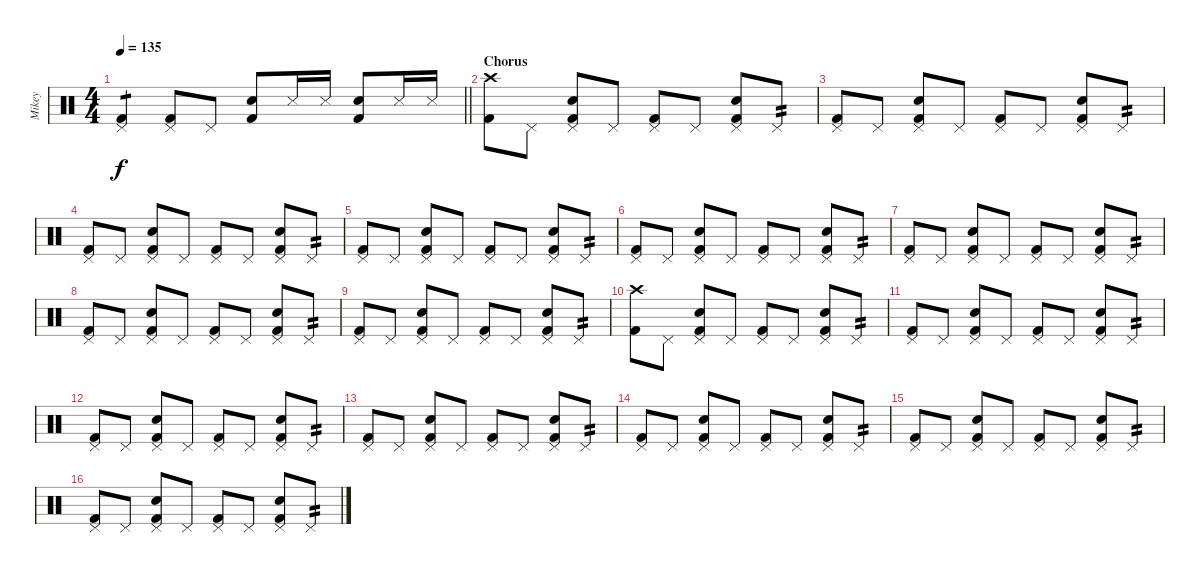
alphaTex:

\track ("Mikey" "Mikey") {instrument percussion}
\staff {score}
\articulation defaults
\ts (4 4)
\tempo 135
\clef neutral
\barLineRight lightlight
\ks c
("Pedal Hi-Hat (hit)" "Kick (hit) 2").4{tp 1 dy f} ("Pedal Hi-Hat (hit)" "Kick (hit) 2").8 "Pedal Hi-Hat (hit)".8 ("Snare (hit) 2" "Kick (hit) 2").8 "Snare (side stick) 3".16 "Snare (side stick) 3".16 ("Snare (hit) 2" "Kick (hit) 2").8 "Snare (side stick) 3".16 "Snare (side stick) 3".16 |
\section ("" "Chorus")
("Crash high (hit)" "Kick (hit) 2").8 "Pedal Hi-Hat (hit)".8 ("Pedal Hi-Hat (hit)" "Snare (hit) 2" "Kick (hit) 2").8 "Pedal Hi-Hat (hit)".8 ("Pedal Hi-Hat (hit)" "Kick (hit) 2").8 "Pedal Hi-Hat (hit)".8 ("Pedal Hi-Hat (hit)" "Snare (hit) 2" "Kick (hit) 2").8 "Pedal Hi-Hat (hit)".8{tp 2} |
("Pedal Hi-Hat (hit)" "Kick (hit) 2").8 "Pedal Hi-Hat (hit)".8 ("Pedal Hi-Hat (hit)" "Snare (hit) 2" "Kick (hit) 2").8 "Pedal Hi-Hat (hit)".8 ("Pedal Hi-Hat (hit)" "Kick (hit) 2").8 "Pedal Hi-Hat (hit)".8 ("Pedal Hi-Hat (hit)" "Snare (hit) 2" "Kick (hit) 2").8 "Pedal Hi-Hat (hit)".8{tp 2} |
("Pedal Hi-Hat (hit)" "Kick (hit) 2").8 "Pedal Hi-Hat (hit)".8 ("Pedal Hi-Hat (hit)" "Snare (hit) 2" "Kick (hit) 2").8 "Pedal Hi-Hat (hit)".8 ("Pedal Hi-Hat (hit)" "Kick (hit) 2").8 "Pedal Hi-Hat (hit)".8 ("Pedal Hi-Hat (hit)" "Snare (hit) 2" "Kick (hit) 2").8 "Pedal Hi-Hat (hit)".8{tp 2} |
("Pedal Hi-Hat (hit)" "Kick (hit) 2").8 "Pedal Hi-Hat (hit)".8 ("Pedal Hi-Hat (hit)" "Snare (hit) 2" "Kick (hit) 2").8 "Pedal Hi-Hat (hit)".8 ("Pedal Hi-Hat (hit)" "Kick (hit) 2").8 "Pedal Hi-Hat (hit)".8 ("Pedal Hi-Hat (hit)" "Snare (hit) 2" "Kick (hit) 2").8 "Pedal Hi-Hat (hit)".8{tp 2} |
("Pedal Hi-Hat (hit)" "Kick (hit) 2").8 "Pedal Hi-Hat (hit)".8 ("Pedal Hi-Hat (hit)" "Snare (hit) 2" "Kick (hit) 2").8 "Pedal Hi-Hat (hit)".8 ("Pedal Hi-Hat (hit)" "Kick (hit) 2").8 "Pedal Hi-Hat (hit)".8 ("Pedal Hi-Hat (hit)" "Snare (hit) 2" "Kick (hit) 2").8 "Pedal Hi-Hat (hit)".8{tp 2} |
("Pedal Hi-Hat (hit)" "Kick (hit) 2").8 "Pedal Hi-Hat (hit)".8 ("Pedal Hi-Hat (hit)" "Snare (hit) 2" "Kick (hit) 2").8 "Pedal Hi-Hat (hit)".8 ("Pedal Hi-Hat (hit)" "Kick (hit) 2").8 "Pedal Hi-Hat (hit)".8 ("Pedal Hi-Hat (hit)" "Snare (hit) 2" "Kick (hit) 2").8 "Pedal Hi-Hat (hit)".8{tp 2} |
("Pedal Hi-Hat (hit)" "Kick (hit) 2").8 "Pedal Hi-Hat (hit)".8 ("Pedal Hi-Hat (hit)" "Snare (hit) 2" "Kick (hit) 2").8 "Pedal Hi-Hat (hit)".8 ("Pedal Hi-Hat (hit)" "Kick (hit) 2").8 "Pedal Hi-Hat (hit)".8 ("Pedal Hi-Hat (hit)" "Snare (hit) 2" "Kick (hit) 2").8 "Pedal Hi-Hat (hit)".8{tp 2} |
("Pedal Hi-Hat (hit)" "Kick (hit) 2").8 "Pedal Hi-Hat (hit)".8 ("Pedal Hi-Hat (hit)" "Snare (hit) 2" "Kick (hit) 2").8 "Pedal Hi-Hat (hit)".8 ("Pedal Hi-Hat (hit)" "Kick (hit) 2").8 "Pedal Hi-Hat (hit)".8 ("Pedal Hi-Hat (hit)" "Snare (hit) 2" "Kick (hit) 2").8 "Pedal Hi-Hat (hit)".8{tp 2} |
("Crash high (hit)" "Kick (hit) 2").8 "Pedal Hi-Hat (hit)".8 ("Pedal Hi-Hat (hit)" "Snare (hit) 2" "Kick (hit) 2").8 "Pedal Hi-Hat (hit)".8 ("Pedal Hi-Hat (hit)" "Kick (hit) 2").8 "Pedal Hi-Hat (hit)".8 ("Pedal Hi-Hat (hit)" "Snare (hit) 2" "Kick (hit) 2").8 "Pedal Hi-Hat (hit)".8{tp 2} |
("Pedal Hi-Hat (hit)" "Kick (hit) 2").8 "Pedal Hi-Hat (hit)".8 ("Pedal Hi-Hat (hit)" "Snare (hit) 2" "Kick (hit) 2").8 "Pedal Hi-Hat (hit)".8 ("Pedal Hi-Hat (hit)" "Kick (hit) 2").8 "Pedal Hi-Hat (hit)".8 ("Pedal Hi-Hat (hit)" "Snare (hit) 2" "Kick (hit) 2").8 "Pedal Hi-Hat (hit)".8{tp 2} |
("Pedal Hi-Hat (hit)" "Kick (hit) 2").8 "Pedal Hi-Hat (hit)".8 ("Pedal Hi-Hat (hit)" "Snare (hit) 2" "Kick (hit) 2").8 "Pedal Hi-Hat (hit)".8 ("Pedal Hi-Hat (hit)" "Kick (hit) 2").8 "Pedal Hi-Hat (hit)".8 ("Pedal Hi-Hat (hit)" "Snare (hit) 2" "Kick (hit) 2").8 "Pedal Hi-Hat (hit)".8{tp 2} |
("Pedal Hi-Hat (hit)" "Kick (hit) 2").8 "Pedal Hi-Hat (hit)".8 ("Pedal Hi-Hat (hit)" "Snare (hit) 2" "Kick (hit) 2").8 "Pedal Hi-Hat (hit)".8 ("Pedal Hi-Hat (hit)" "Kick (hit) 2").8 "Pedal Hi-Hat (hit)".8 ("Pedal Hi-Hat (hit)" "Snare (hit) 2" "Kick (hit) 2").8 "Pedal Hi-Hat (hit)".8{tp 2} |
("Pedal Hi-Hat (hit)" "Kick (hit) 2").8 "Pedal Hi-Hat (hit)".8 ("Pedal Hi-Hat (hit)" "Snare (hit) 2" "Kick (hit) 2").8 "Pedal Hi-Hat (hit)".8 ("Pedal Hi-Hat (hit)" "Kick (hit) 2").8 "Pedal Hi-Hat (hit)".8 ("Pedal Hi-Hat (hit)" "Snare (hit) 2" "Kick (hit) 2").8 "Pedal Hi-Hat (hit)".8{tp 2} |
("Pedal Hi-Hat (hit)" "Kick (hit) 2").8 "Pedal Hi-Hat (hit)".8 ("Pedal Hi-Hat (hit)" "Snare (hit) 2" "Kick (hit) 2").8 "Pedal Hi-Hat (hit)".8 ("Pedal Hi-Hat (hit)" "Kick (hit) 2").8 "Pedal Hi-Hat (hit)".8 ("Pedal Hi-Hat (hit)" "Snare (hit) 2" "Kick (hit) 2").8 "Pedal Hi-Hat (hit)".8{tp 2} |
("Pedal Hi-Hat (hit)" "Kick (hit) 2").8 "Pedal Hi-Hat (hit)".8 ("Pedal Hi-Hat (hit)" "Snare (hit) 2" "Kick (hit) 2").8 "Pedal Hi-Hat (hit)".8 ("Pedal Hi-Hat (hit)" "Kick (hit) 2").8 "Pedal Hi-Hat (hit)".8 ("Pedal Hi-Hat (hit)" "Snare (hit) 2" "Kick (hit) 2").8 "Pedal Hi-Hat (hit)".8{tp 2}
